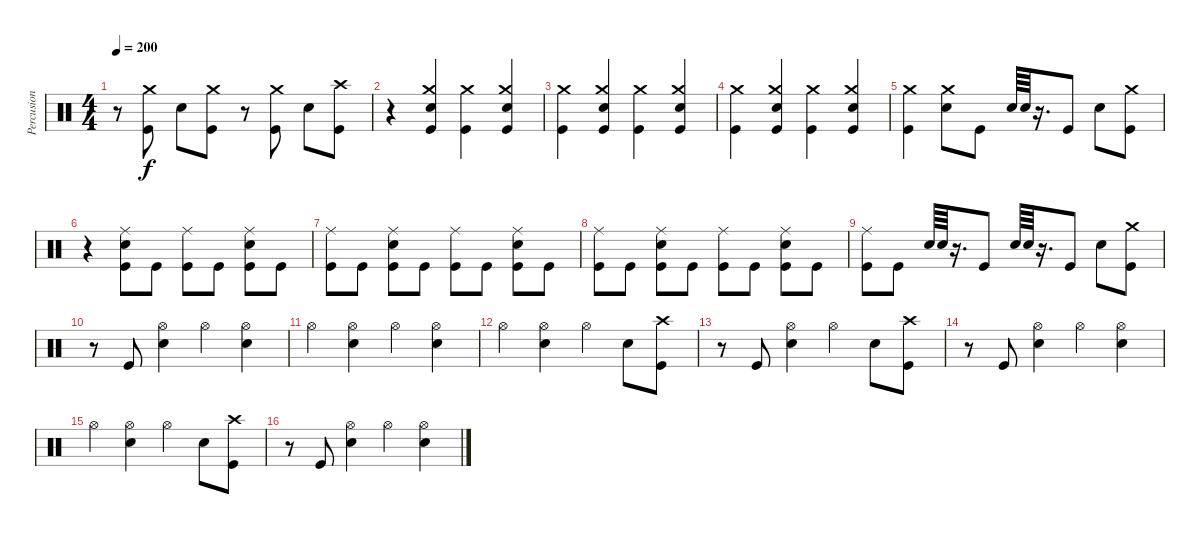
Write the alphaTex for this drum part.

\track ("Percusion" "Percusion") {instrument percussion}
\staff {score}
\articulation defaults
\ts (4 4)
\tempo 200
\clef neutral
\ks c
r.8{dy f} ("Kick (hit)" "Crash medium (hit)").8 "Snare (hit) 2".8 ("Kick (hit)" "Crash medium (hit)").8 r.8 ("Kick (hit)" "Crash medium (hit)").8 "Snare (hit) 2".8 ("Kick (hit)" "Crash high (hit)").8 |
r.4 ("Crash medium (hit)" "Kick (hit)" "Snare (hit) 2").4 ("Kick (hit)" "Crash medium (hit)").4 ("Crash medium (hit)" "Kick (hit)" "Snare (hit) 2").4 |
("Kick (hit)" "Crash medium (hit)").4 ("Crash medium (hit)" "Kick (hit)" "Snare (hit) 2").4 ("Kick (hit)" "Crash medium (hit)").4 ("Crash medium (hit)" "Kick (hit)" "Snare (hit) 2").4 |
("Kick (hit)" "Crash medium (hit)").4 ("Crash medium (hit)" "Kick (hit)" "Snare (hit) 2").4 ("Kick (hit)" "Crash medium (hit)").4 ("Crash medium (hit)" "Kick (hit)" "Snare (hit) 2").4 |
("Kick (hit)" "Crash medium (hit)").4 ("Crash medium (hit)" "Snare (hit) 2").8 "Kick (hit)".8 "Snare (hit) 2".64 "Snare (hit) 2".64 r.16{d} "Kick (hit)".8 "Snare (hit) 2".8 ("Crash medium (hit)" "Kick (hit)").8 |
r.4 ("Snare (hit) 2" "Ride (middle)" "Kick (hit)").8 "Kick (hit)".8 ("Kick (hit)" "Ride (middle)").8 "Kick (hit)".8 ("Kick (hit)" "Ride (middle)" "Snare (hit) 2").8 "Kick (hit)".8 |
("Kick (hit)" "Ride (middle)").8 "Kick (hit)".8 ("Kick (hit)" "Ride (middle)" "Snare (hit) 2").8 "Kick (hit)".8 ("Kick (hit)" "Ride (middle)").8 "Kick (hit)".8 ("Kick (hit)" "Ride (middle)" "Snare (hit) 2").8 "Kick (hit)".8 |
("Kick (hit)" "Ride (middle)").8 "Kick (hit)".8 ("Kick (hit)" "Ride (middle)" "Snare (hit) 2").8 "Kick (hit)".8 ("Kick (hit)" "Ride (middle)").8 "Kick (hit)".8 ("Kick (hit)" "Ride (middle)" "Snare (hit) 2").8 "Kick (hit)".8 |
("Ride (middle)" "Kick (hit)").8 "Kick (hit)".8 "Snare (hit) 2".64 "Snare (hit) 2".64 r.16{d} "Kick (hit)".8 "Snare (hit) 2".64 "Snare (hit) 2".64 r.16{d} "Kick (hit)".8 "Snare (hit) 2".8 ("Crash medium (hit)" "Kick (hit)").8 |
r.8 "Kick (hit)".8 ("Snare (hit) 2" "Hi-Hat (open)").4 "Hi-Hat (open)".4 ("Snare (hit) 2" "Hi-Hat (open)").4 |
"Hi-Hat (open)".4 ("Snare (hit) 2" "Hi-Hat (open)").4 "Hi-Hat (open)".4 ("Snare (hit) 2" "Hi-Hat (open)").4 |
"Hi-Hat (open)".4 ("Snare (hit) 2" "Hi-Hat (open)").4 "Hi-Hat (open)".4 "Snare (hit) 2".8 ("Kick (hit)" "Crash high (hit)").8 |
r.8 "Kick (hit)".8 ("Hi-Hat (open)" "Snare (hit) 2").4 "Hi-Hat (open)".4 "Snare (hit) 2".8 ("Kick (hit)" "Crash high (hit)").8 |
r.8 "Kick (hit)".8 ("Hi-Hat (open)" "Snare (hit) 2").4 "Hi-Hat (open)".4 ("Snare (hit) 2" "Hi-Hat (open)").4 |
"Hi-Hat (open)".4 ("Snare (hit) 2" "Hi-Hat (open)").4 "Hi-Hat (open)".4 "Snare (hit) 2".8 ("Kick (hit)" "Crash high (hit)").8 |
r.8 "Kick (hit)".8 ("Hi-Hat (open)" "Snare (hit) 2").4 "Hi-Hat (open)".4 ("Snare (hit) 2" "Hi-Hat (open)").4
